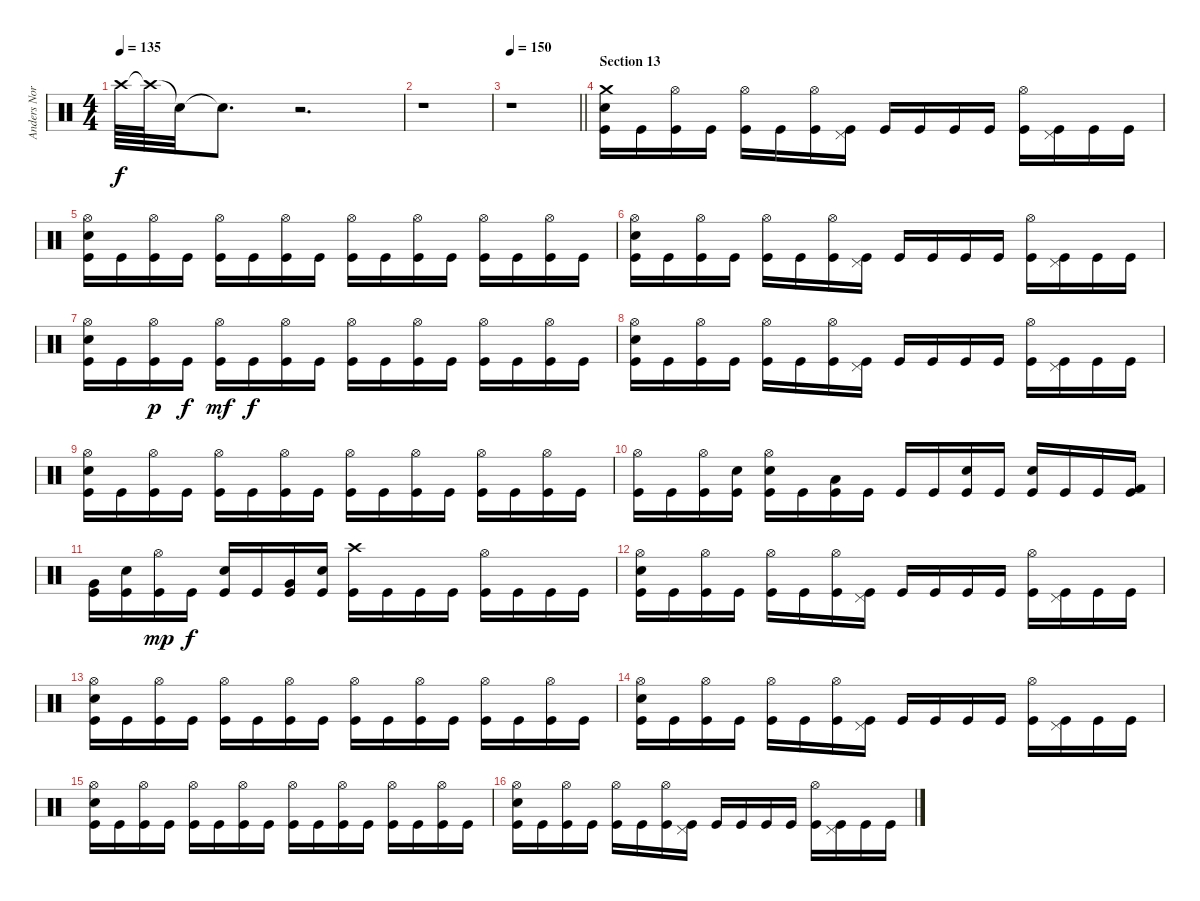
\track ("Anders Nordin" "Anders Nor") {instrument percussion}
\staff {score}
\articulation defaults
\ts (4 4)
\tempo 135
\clef neutral
\ks c "Crash high (hit)"{t}.64{dy f} "Crash high (hit)"{t}.64 "Snare (hit)"{t}.32 "Snare (hit)"{t}.8{d}
r.2{d} |
r.1 |
\tempo 150
\barLineRight lightlight
r.1 |
\section ("" "Section 13")
("Snare (hit) 2" "Crash medium (hit)" "Kick (hit)").16 "Kick (hit)".16 ("Hi-Hat (open)" "Kick (hit)").16 "Kick (hit)".16 ("Hi-Hat (open)" "Kick (hit)").16 "Kick (hit)".16 ("Hi-Hat (open)" "Kick (hit)").16 ("Pedal Hi-Hat (hit)" "Kick (hit)").16 "Kick (hit)".16 "Kick (hit)".16 "Kick (hit)".16 "Kick (hit)".16 ("Hi-Hat (open)" "Kick (hit)").16 ("Pedal Hi-Hat (hit)" "Kick (hit)").16 "Kick (hit)".16 "Kick (hit)".16 |
("Snare (hit) 2" "Hi-Hat (open)" "Kick (hit)").16 "Kick (hit)".16 ("Hi-Hat (open)" "Kick (hit)").16 "Kick (hit)".16 ("Hi-Hat (open)" "Kick (hit)").16 "Kick (hit)".16 ("Hi-Hat (open)" "Kick (hit)").16 "Kick (hit)".16 ("Hi-Hat (open)" "Kick (hit)").16 "Kick (hit)".16 ("Hi-Hat (open)" "Kick (hit)").16 "Kick (hit)".16 ("Hi-Hat (open)" "Kick (hit)").16 "Kick (hit)".16 ("Hi-Hat (open)" "Kick (hit)").16 "Kick (hit)".16 |
("Hi-Hat (open)" "Snare (hit) 2" "Kick (hit)").16 "Kick (hit)".16 ("Hi-Hat (open)" "Kick (hit)").16 "Kick (hit)".16 ("Hi-Hat (open)" "Kick (hit)").16 "Kick (hit)".16 ("Hi-Hat (open)" "Kick (hit)").16 ("Pedal Hi-Hat (hit)" "Kick (hit)").16 "Kick (hit)".16 "Kick (hit)".16 "Kick (hit)".16 "Kick (hit)".16 ("Hi-Hat (open)" "Kick (hit)").16 ("Pedal Hi-Hat (hit)" "Kick (hit)").16 "Kick (hit)".16 "Kick (hit)".16 |
("Snare (hit) 2" "Hi-Hat (open)" "Kick (hit)").16 "Kick (hit)".16 ("Hi-Hat (open)" "Kick (hit)").16{dy p} "Kick (hit)".16{dy f} ("Hi-Hat (open)" "Kick (hit)").16{dy mf} "Kick (hit)".16{dy f} ("Hi-Hat (open)" "Kick (hit)").16 "Kick (hit)".16 ("Hi-Hat (open)" "Kick (hit)").16 "Kick (hit)".16 ("Hi-Hat (open)" "Kick (hit)").16 "Kick (hit)".16 ("Hi-Hat (open)" "Kick (hit)").16 "Kick (hit)".16 ("Hi-Hat (open)" "Kick (hit)").16 "Kick (hit)".16 |
("Hi-Hat (open)" "Snare (hit) 2" "Kick (hit)").16 "Kick (hit)".16 ("Hi-Hat (open)" "Kick (hit)").16 "Kick (hit)".16 ("Hi-Hat (open)" "Kick (hit)").16 "Kick (hit)".16 ("Hi-Hat (open)" "Kick (hit)").16 ("Pedal Hi-Hat (hit)" "Kick (hit)").16 "Kick (hit)".16 "Kick (hit)".16 "Kick (hit)".16 "Kick (hit)".16 ("Hi-Hat (open)" "Kick (hit)").16 ("Pedal Hi-Hat (hit)" "Kick (hit)").16 "Kick (hit)".16 "Kick (hit)".16 |
("Snare (hit) 2" "Hi-Hat (open)" "Kick (hit)").16 "Kick (hit)".16 ("Hi-Hat (open)" "Kick (hit)").16 "Kick (hit)".16 ("Hi-Hat (open)" "Kick (hit)").16 "Kick (hit)".16 ("Hi-Hat (open)" "Kick (hit)").16 "Kick (hit)".16 ("Hi-Hat (open)" "Kick (hit)").16 "Kick (hit)".16 ("Hi-Hat (open)" "Kick (hit)").16 "Kick (hit)".16 ("Hi-Hat (open)" "Kick (hit)").16 "Kick (hit)".16 ("Hi-Hat (open)" "Kick (hit)").16 "Kick (hit)".16 |
("Hi-Hat (open)" "Kick (hit)").16 "Kick (hit)".16 ("Hi-Hat (open)" "Kick (hit)").16 ("Snare (hit) 2" "Kick (hit)").16 ("Snare (hit) 2" "Hi-Hat (open)" "Kick (hit)").16 "Kick (hit)".16 ("Low Tom (hit)" "Kick (hit)").16 "Kick (hit)".16 "Kick (hit)".16 "Kick (hit)".16 ("Snare (hit) 2" "Kick (hit)").16 "Kick (hit)".16 ("Snare (hit) 2" "Kick (hit)").16 "Kick (hit)".16 "Kick (hit)".16 ("Kick (hit) 2" "Kick (hit)").16 |
("Very Low Tom (hit)" "Kick (hit)").16 ("Snare (hit) 2" "Kick (hit)").16 ("Hi-Hat (open)" "Kick (hit)").16{dy mp} "Kick (hit)".16{dy f} ("Snare (hit) 2" "Kick (hit)").16 "Kick (hit)".16 ("Very Low Tom (hit)" "Kick (hit)").16 ("Snare (hit) 2" "Kick (hit)").16 ("Crash high (hit)" "Kick (hit)").16 "Kick (hit)".16 "Kick (hit)".16 "Kick (hit)".16 ("Hi-Hat (open)" "Kick (hit)").16 "Kick (hit)".16 "Kick (hit)".16 "Kick (hit)".16 |
("Hi-Hat (open)" "Snare (hit) 2" "Kick (hit)").16 "Kick (hit)".16 ("Hi-Hat (open)" "Kick (hit)").16 "Kick (hit)".16 ("Hi-Hat (open)" "Kick (hit)").16 "Kick (hit)".16 ("Hi-Hat (open)" "Kick (hit)").16 ("Pedal Hi-Hat (hit)" "Kick (hit)").16 "Kick (hit)".16 "Kick (hit)".16 "Kick (hit)".16 "Kick (hit)".16 ("Hi-Hat (open)" "Kick (hit)").16 ("Pedal Hi-Hat (hit)" "Kick (hit)").16 "Kick (hit)".16 "Kick (hit)".16 |
("Snare (hit) 2" "Hi-Hat (open)" "Kick (hit)").16 "Kick (hit)".16 ("Hi-Hat (open)" "Kick (hit)").16 "Kick (hit)".16 ("Hi-Hat (open)" "Kick (hit)").16 "Kick (hit)".16 ("Hi-Hat (open)" "Kick (hit)").16 "Kick (hit)".16 ("Hi-Hat (open)" "Kick (hit)").16 "Kick (hit)".16 ("Hi-Hat (open)" "Kick (hit)").16 "Kick (hit)".16 ("Hi-Hat (open)" "Kick (hit)").16 "Kick (hit)".16 ("Hi-Hat (open)" "Kick (hit)").16 "Kick (hit)".16 |
("Hi-Hat (open)" "Snare (hit) 2" "Kick (hit)").16 "Kick (hit)".16 ("Hi-Hat (open)" "Kick (hit)").16 "Kick (hit)".16 ("Hi-Hat (open)" "Kick (hit)").16 "Kick (hit)".16 ("Hi-Hat (open)" "Kick (hit)").16 ("Pedal Hi-Hat (hit)" "Kick (hit)").16 "Kick (hit)".16 "Kick (hit)".16 "Kick (hit)".16 "Kick (hit)".16 ("Hi-Hat (open)" "Kick (hit)").16 ("Pedal Hi-Hat (hit)" "Kick (hit)").16 "Kick (hit)".16 "Kick (hit)".16 |
("Snare (hit) 2" "Hi-Hat (open)" "Kick (hit)").16 "Kick (hit)".16 ("Hi-Hat (open)" "Kick (hit)").16 "Kick (hit)".16 ("Hi-Hat (open)" "Kick (hit)").16 "Kick (hit)".16 ("Hi-Hat (open)" "Kick (hit)").16 "Kick (hit)".16 ("Hi-Hat (open)" "Kick (hit)").16 "Kick (hit)".16 ("Hi-Hat (open)" "Kick (hit)").16 "Kick (hit)".16 ("Hi-Hat (open)" "Kick (hit)").16 "Kick (hit)".16 ("Hi-Hat (open)" "Kick (hit)").16 "Kick (hit)".16 |
("Hi-Hat (open)" "Snare (hit) 2" "Kick (hit)").16 "Kick (hit)".16 ("Hi-Hat (open)" "Kick (hit)").16 "Kick (hit)".16 ("Hi-Hat (open)" "Kick (hit)").16 "Kick (hit)".16 ("Hi-Hat (open)" "Kick (hit)").16 ("Pedal Hi-Hat (hit)" "Kick (hit)").16 "Kick (hit)".16 "Kick (hit)".16 "Kick (hit)".16 "Kick (hit)".16 ("Hi-Hat (open)" "Kick (hit)").16 ("Pedal Hi-Hat (hit)" "Kick (hit)").16 "Kick (hit)".16 "Kick (hit)".16
